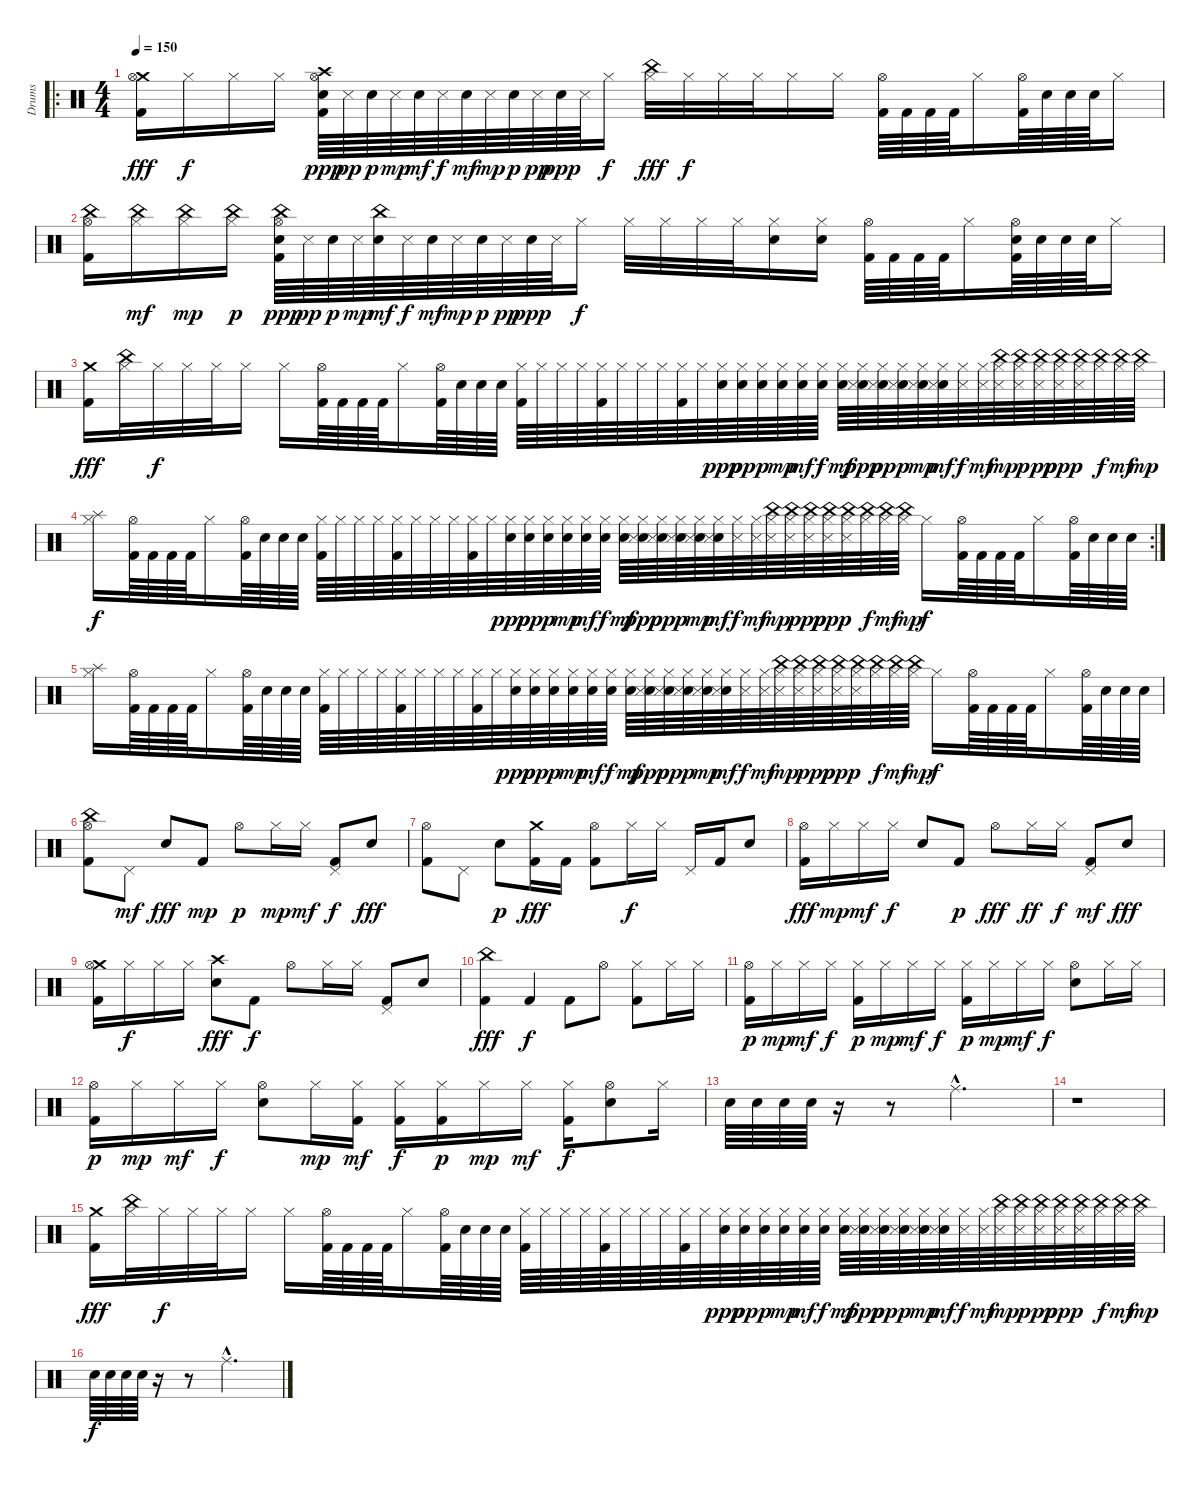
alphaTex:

\track ("Drums" "Drums") {instrument percussion}
\staff {score}
\articulation defaults
\ro
\ts (4 4)
\tempo 150
\clef neutral
\ks c
("Crash medium (hit)" "Hi-Hat (open)" "Kick (hit) 2").16{dy fff} "Hi-Hat (closed)".16{dy f} "Hi-Hat (closed)".16 "Hi-Hat (closed)".16 ("Crash high (hit)" "Hi-Hat (open)" "Electric Snare (hit)" "Kick (hit) 2").64{dy ppp} "Snare (side stick) 3".64{dy pp} "Electric Snare (hit)".64{dy p} "Snare (side stick) 3".64{dy mp} "Electric Snare (hit)".64{dy mf} "Snare (side stick) 3".64{dy f} "Electric Snare (hit)".64{dy mf} "Snare (side stick) 3".64{dy mp} "Electric Snare (hit)".64{dy p} "Snare (side stick) 3".64{dy pp} "Electric Snare (hit)".64{dy ppp} "Snare (side stick) 3".64 "Hi-Hat (closed)".16{dy f} ("China (hit)" "Hi-Hat (closed)").32{dy fff} "Hi-Hat (closed)".32{dy f} "Hi-Hat (closed)".32 "Hi-Hat (closed)".32 "Hi-Hat (closed)".16 "Hi-Hat (closed)".16 ("Hi-Hat (open)" "Kick (hit) 2").64 "Kick (hit) 2".64 "Kick (hit) 2".64 "Kick (hit) 2".64 "Hi-Hat (closed)".16 ("Hi-Hat (open)" "Kick (hit) 2").64 "Electric Snare (hit)".64 "Electric Snare (hit)".64 "Electric Snare (hit)".64 "Hi-Hat (closed)".16 |
("China (hit)" "Hi-Hat (open)" "Kick (hit) 2").16 ("China (hit)" "Hi-Hat (closed)").16{dy mf} ("China (hit)" "Hi-Hat (closed)").16{dy mp} ("China (hit)" "Hi-Hat (closed)").16{dy p} ("China (hit)" "Hi-Hat (open)" "Electric Snare (hit)" "Kick (hit) 2").64{dy ppp} "Snare (side stick) 3".64{dy pp} "Electric Snare (hit)".64{dy p} "Snare (side stick) 3".64{dy mp} ("China (hit)" "Electric Snare (hit)").64{dy mf} "Snare (side stick) 3".64{dy f} "Electric Snare (hit)".64{dy mf} "Snare (side stick) 3".64{dy mp} "Electric Snare (hit)".64{dy p} "Snare (side stick) 3".64{dy pp} "Electric Snare (hit)".64{dy ppp} "Snare (side stick) 3".64 "Hi-Hat (closed)".16{dy f} "Hi-Hat (closed)".32 "Hi-Hat (closed)".32 "Hi-Hat (closed)".32 "Hi-Hat (closed)".32 ("Hand Clap (hit)" "Hi-Hat (closed)").16 ("Hand Clap (hit)" "Hi-Hat (closed)").16 ("Hi-Hat (open)" "Kick (hit) 2").64 "Kick (hit) 2".64 "Kick (hit) 2".64 "Kick (hit) 2".64 "Hi-Hat (closed)".16 ("Hand Clap (hit)" "Hi-Hat (open)" "Kick (hit) 2").64 "Electric Snare (hit)".64 "Electric Snare (hit)".64 "Electric Snare (hit)".64 "Hi-Hat (closed)".16 |
("Crash medium (hit)" "Kick (hit) 2").16{dy fff} ("China (hit)" "Hi-Hat (closed)").32 "Hi-Hat (closed)".32{dy f} "Hi-Hat (closed)".32 "Hi-Hat (closed)".32 "Hi-Hat (closed)".16 "Hi-Hat (closed)".16 ("Hi-Hat (open)" "Kick (hit) 2").64 "Kick (hit) 2".64 "Kick (hit) 2".64 "Kick (hit) 2".64 "Hi-Hat (closed)".16 ("Hi-Hat (open)" "Kick (hit) 2").64 "Electric Snare (hit)".64 "Electric Snare (hit)".64 "Electric Snare (hit)".64 ("Hi-Hat (closed)" "Kick (hit) 2").64 "Hi-Hat (closed)".64 "Hi-Hat (closed)".64 "Hi-Hat (closed)".64 ("Hi-Hat (closed)" "Kick (hit) 2").64 "Hi-Hat (closed)".64 "Hi-Hat (closed)".64 "Hi-Hat (closed)".64 ("Hi-Hat (closed)" "Kick (hit) 2").64 "Hi-Hat (closed)".64 ("Hi-Hat (closed)" "Electric Snare (hit)").64{dy ppp} ("Hi-Hat (closed)" "Electric Snare (hit)").64{dy pp} ("Hi-Hat (closed)" "Electric Snare (hit)").64{dy p} ("Hi-Hat (closed)" "Electric Snare (hit)").64{dy mp} ("Hi-Hat (closed)" "Electric Snare (hit)").64{dy mf} ("Hi-Hat (closed)" "Electric Snare (hit)").64{dy f} ("Hi-Hat (closed)" "Electric Snare (hit)").64{dy mf} ("Hi-Hat (closed)" "Electric Snare (hit)" "Snare (side stick) 3").64{dy ppp} ("Hi-Hat (closed)" "Electric Snare (hit)" "Snare (side stick) 3").64{dy pp} ("Hi-Hat (closed)" "Electric Snare (hit)" "Snare (side stick) 3").64{dy p} ("Hi-Hat (closed)" "Electric Snare (hit)" "Snare (side stick) 3").64{dy mp} ("Hi-Hat (closed)" "Electric Snare (hit)" "Snare (side stick) 3").64{dy mf} ("Hi-Hat (closed)" "Snare (side stick) 3").64{dy f} ("Hi-Hat (closed)" "Snare (side stick) 3").64{dy mf} ("China (hit)" "Hi-Hat (closed)" "Snare (side stick) 3").64{dy mp} ("China (hit)" "Hi-Hat (closed)" "Snare (side stick) 3").64{dy p} ("China (hit)" "Hi-Hat (closed)" "Snare (side stick) 3").64{dy pp} ("China (hit)" "Hi-Hat (closed)" "Snare (side stick) 3").64{dy ppp} ("China (hit)" "Hi-Hat (closed)" "Snare (side stick) 3").64 ("China (hit)" "Hi-Hat (closed)").64{dy f} ("China (hit)" "Hi-Hat (closed)").64{dy mf} ("China (hit)" "Hi-Hat (closed)").64{dy mp} |
\rc 2
("Splash (hit)" "Hi-Hat (closed)").16{dy f} ("Hi-Hat (open)" "Kick (hit) 2").64 "Kick (hit) 2".64 "Kick (hit) 2".64 "Kick (hit) 2".64 "Hi-Hat (closed)".16 ("Hi-Hat (open)" "Kick (hit) 2").64 "Electric Snare (hit)".64 "Electric Snare (hit)".64 "Electric Snare (hit)".64 ("Hi-Hat (closed)" "Kick (hit) 2").64 "Hi-Hat (closed)".64 "Hi-Hat (closed)".64 "Hi-Hat (closed)".64 ("Hi-Hat (closed)" "Kick (hit) 2").64 "Hi-Hat (closed)".64 "Hi-Hat (closed)".64 "Hi-Hat (closed)".64 ("Hi-Hat (closed)" "Kick (hit) 2").64 "Hi-Hat (closed)".64 ("Hi-Hat (closed)" "Electric Snare (hit)").64{dy ppp} ("Hi-Hat (closed)" "Electric Snare (hit)").64{dy pp} ("Hi-Hat (closed)" "Electric Snare (hit)").64{dy p} ("Hi-Hat (closed)" "Electric Snare (hit)").64{dy mp} ("Hi-Hat (closed)" "Electric Snare (hit)").64{dy mf} ("Hi-Hat (closed)" "Electric Snare (hit)").64{dy f} ("Hi-Hat (closed)" "Electric Snare (hit)").64{dy mf} ("Hi-Hat (closed)" "Electric Snare (hit)" "Snare (side stick) 3").64{dy ppp} ("Hi-Hat (closed)" "Electric Snare (hit)" "Snare (side stick) 3").64{dy pp} ("Hi-Hat (closed)" "Electric Snare (hit)" "Snare (side stick) 3").64{dy p} ("Hi-Hat (closed)" "Electric Snare (hit)" "Snare (side stick) 3").64{dy mp} ("Hi-Hat (closed)" "Electric Snare (hit)" "Snare (side stick) 3").64{dy mf} ("Hi-Hat (closed)" "Snare (side stick) 3").64{dy f} ("Hi-Hat (closed)" "Snare (side stick) 3").64{dy mf} ("China (hit)" "Hi-Hat (closed)" "Snare (side stick) 3").64{dy mp} ("China (hit)" "Hi-Hat (closed)" "Snare (side stick) 3").64{dy p} ("China (hit)" "Hi-Hat (closed)" "Snare (side stick) 3").64{dy pp} ("China (hit)" "Hi-Hat (closed)" "Snare (side stick) 3").64{dy ppp} ("China (hit)" "Hi-Hat (closed)" "Snare (side stick) 3").64 ("China (hit)" "Hi-Hat (closed)").64{dy f} ("China (hit)" "Hi-Hat (closed)").64{dy mf} ("China (hit)" "Hi-Hat (closed)").64{dy mp} "Hi-Hat (closed)".16{dy f} ("Hi-Hat (open)" "Kick (hit) 2").64 "Kick (hit) 2".64 "Kick (hit) 2".64 "Kick (hit) 2".64 "Hi-Hat (closed)".16 ("Hi-Hat (open)" "Kick (hit) 2").64 "Electric Snare (hit)".64 "Electric Snare (hit)".64 "Electric Snare (hit)".64 |
("Splash (hit)" "Hi-Hat (closed)").16 ("Hi-Hat (open)" "Kick (hit) 2").64 "Kick (hit) 2".64 "Kick (hit) 2".64 "Kick (hit) 2".64 "Hi-Hat (closed)".16 ("Hi-Hat (open)" "Kick (hit) 2").64 "Electric Snare (hit)".64 "Electric Snare (hit)".64 "Electric Snare (hit)".64 ("Hi-Hat (closed)" "Kick (hit) 2").64 "Hi-Hat (closed)".64 "Hi-Hat (closed)".64 "Hi-Hat (closed)".64 ("Hi-Hat (closed)" "Kick (hit) 2").64 "Hi-Hat (closed)".64 "Hi-Hat (closed)".64 "Hi-Hat (closed)".64 ("Hi-Hat (closed)" "Kick (hit) 2").64 "Hi-Hat (closed)".64 ("Hi-Hat (closed)" "Electric Snare (hit)").64{dy ppp} ("Hi-Hat (closed)" "Electric Snare (hit)").64{dy pp} ("Hi-Hat (closed)" "Electric Snare (hit)").64{dy p} ("Hi-Hat (closed)" "Electric Snare (hit)").64{dy mp} ("Hi-Hat (closed)" "Electric Snare (hit)").64{dy mf} ("Hi-Hat (closed)" "Electric Snare (hit)").64{dy f} ("Hi-Hat (closed)" "Electric Snare (hit)").64{dy mf} ("Hi-Hat (closed)" "Electric Snare (hit)" "Snare (side stick) 3").64{dy ppp} ("Hi-Hat (closed)" "Electric Snare (hit)" "Snare (side stick) 3").64{dy pp} ("Hi-Hat (closed)" "Electric Snare (hit)" "Snare (side stick) 3").64{dy p} ("Hi-Hat (closed)" "Electric Snare (hit)" "Snare (side stick) 3").64{dy mp} ("Hi-Hat (closed)" "Electric Snare (hit)" "Snare (side stick) 3").64{dy mf} ("Hi-Hat (closed)" "Snare (side stick) 3").64{dy f} ("Hi-Hat (closed)" "Snare (side stick) 3").64{dy mf} ("China (hit)" "Hi-Hat (closed)" "Snare (side stick) 3").64{dy mp} ("China (hit)" "Hi-Hat (closed)" "Snare (side stick) 3").64{dy p} ("China (hit)" "Hi-Hat (closed)" "Snare (side stick) 3").64{dy pp} ("China (hit)" "Hi-Hat (closed)" "Snare (side stick) 3").64{dy ppp} ("China (hit)" "Hi-Hat (closed)" "Snare (side stick) 3").64 ("China (hit)" "Hi-Hat (closed)").64{dy f} ("China (hit)" "Hi-Hat (closed)").64{dy mf} ("China (hit)" "Hi-Hat (closed)").64{dy mp} "Hi-Hat (closed)".16{dy f} ("Hi-Hat (open)" "Kick (hit) 2").64 "Kick (hit) 2".64 "Kick (hit) 2".64 "Kick (hit) 2".64 "Hi-Hat (closed)".16 ("Hi-Hat (open)" "Kick (hit) 2").64 "Electric Snare (hit)".64 "Electric Snare (hit)".64 "Electric Snare (hit)".64 |
("China (hit)" "Hi-Hat (open)" "Kick (hit) 2").8 "Pedal Hi-Hat (hit)".8{dy mf} "Electric Snare (hit)".8{dy fff} "Kick (hit) 2".8{dy mp} "Hi-Hat (open)".8{dy p} "Hi-Hat (closed)".16{dy mp} "Hi-Hat (closed)".16{dy mf} ("Pedal Hi-Hat (hit)" "Kick (hit) 2").8{dy f} "Electric Snare (hit)".8{dy fff} |
("Hi-Hat (open)" "Kick (hit) 2").8 "Pedal Hi-Hat (hit)".8 "Electric Snare (hit)".8{dy p} ("Crash medium (hit)" "Kick (hit) 2").16{dy fff} "Kick (hit) 2".16 ("Hi-Hat (open)" "Kick (hit) 2").8 "Hi-Hat (closed)".16{dy f} "Hi-Hat (closed)".16 "Pedal Hi-Hat (hit)".16 "Kick (hit) 2".16 "Electric Snare (hit)".8 |
("Hi-Hat (open)" "Kick (hit) 2").16{dy fff} "Hi-Hat (closed)".16{dy mp} "Hi-Hat (closed)".16{dy mf} "Hi-Hat (closed)".16{dy f} "Electric Snare (hit)".8 "Kick (hit) 2".8{dy p} "Hi-Hat (open)".8{dy fff} "Hi-Hat (closed)".16{dy ff} "Hi-Hat (closed)".16{dy f} ("Pedal Hi-Hat (hit)" "Kick (hit) 2").8{dy mf} "Electric Snare (hit)".8{dy fff} |
("Crash medium (hit)" "Hi-Hat (open)" "Kick (hit) 2").16 "Hi-Hat (closed)".16{dy f} "Hi-Hat (closed)".16 "Hi-Hat (closed)".16 ("Crash high (hit)" "Electric Snare (hit)").8{dy fff} "Kick (hit) 2".8{dy f} "Hi-Hat (open)".8 "Hi-Hat (closed)".16 "Hi-Hat (closed)".16 ("Pedal Hi-Hat (hit)" "Kick (hit) 2").8 "Electric Snare (hit)".8 |
("China (hit)" "Kick (hit) 2").4{dy fff} "Kick (hit) 2".4{dy f} "Kick (hit) 2".8 "Hi-Hat (open)".8 ("Hi-Hat (closed)" "Kick (hit) 2").8 "Hi-Hat (closed)".16 "Hi-Hat (closed)".16 |
("Hi-Hat (open)" "Kick (hit) 2").16{dy p} "Hi-Hat (closed)".16{dy mp} "Hi-Hat (closed)".16{dy mf} "Hi-Hat (closed)".16{dy f} ("Hi-Hat (closed)" "Kick (hit) 2").16{dy p} "Hi-Hat (closed)".16{dy mp} "Hi-Hat (closed)".16{dy mf} "Hi-Hat (closed)".16{dy f} ("Hi-Hat (closed)" "Kick (hit) 2").16{dy p} "Hi-Hat (closed)".16{dy mp} "Hi-Hat (closed)".16{dy mf} "Hi-Hat (closed)".16{dy f} ("Hi-Hat (open)" "Electric Snare (hit)").8 "Hi-Hat (closed)".16 "Hi-Hat (closed)".16 |
("Hi-Hat (open)" "Kick (hit) 2").16{dy p} "Hi-Hat (closed)".16{dy mp} "Hi-Hat (closed)".16{dy mf} "Hi-Hat (closed)".16{dy f} ("Hi-Hat (open)" "Electric Snare (hit)").8 "Hi-Hat (closed)".16{dy mp} ("Hi-Hat (closed)" "Kick (hit) 2").16{dy mf} ("Hi-Hat (closed)" "Kick (hit) 2").16{dy f} ("Hi-Hat (closed)" "Kick (hit) 2").16{dy p} "Hi-Hat (closed)".16{dy mp} "Hi-Hat (closed)".16{dy mf} ("Hi-Hat (closed)" "Kick (hit) 2").16{dy f} ("Hi-Hat (open)" "Electric Snare (hit)").8 "Hi-Hat (closed)".16 |
"Electric Snare (hit)".64 "Electric Snare (hit)".64 "Electric Snare (hit)".64 "Electric Snare (hit)".64 r.16 r.8 "Ride (middle)"{hac}.2{d} |
r.1 |
("Crash medium (hit)" "Kick (hit) 2").16{dy fff} ("China (hit)" "Hi-Hat (closed)").32 "Hi-Hat (closed)".32{dy f} "Hi-Hat (closed)".32 "Hi-Hat (closed)".32 "Hi-Hat (closed)".16 "Hi-Hat (closed)".16 ("Hi-Hat (open)" "Kick (hit) 2").64 "Kick (hit) 2".64 "Kick (hit) 2".64 "Kick (hit) 2".64 "Hi-Hat (closed)".16 ("Hi-Hat (open)" "Kick (hit) 2").64 "Electric Snare (hit)".64 "Electric Snare (hit)".64 "Electric Snare (hit)".64 ("Hi-Hat (closed)" "Kick (hit) 2").64 "Hi-Hat (closed)".64 "Hi-Hat (closed)".64 "Hi-Hat (closed)".64 ("Hi-Hat (closed)" "Kick (hit) 2").64 "Hi-Hat (closed)".64 "Hi-Hat (closed)".64 "Hi-Hat (closed)".64 ("Hi-Hat (closed)" "Kick (hit) 2").64 "Hi-Hat (closed)".64 ("Hi-Hat (closed)" "Electric Snare (hit)").64{dy ppp} ("Hi-Hat (closed)" "Electric Snare (hit)").64{dy pp} ("Hi-Hat (closed)" "Electric Snare (hit)").64{dy p} ("Hi-Hat (closed)" "Electric Snare (hit)").64{dy mp} ("Hi-Hat (closed)" "Electric Snare (hit)").64{dy mf} ("Hi-Hat (closed)" "Electric Snare (hit)").64{dy f} ("Hi-Hat (closed)" "Electric Snare (hit)").64{dy mf} ("Hi-Hat (closed)" "Electric Snare (hit)" "Snare (side stick) 3").64{dy ppp} ("Hi-Hat (closed)" "Electric Snare (hit)" "Snare (side stick) 3").64{dy pp} ("Hi-Hat (closed)" "Electric Snare (hit)" "Snare (side stick) 3").64{dy p} ("Hi-Hat (closed)" "Electric Snare (hit)" "Snare (side stick) 3").64{dy mp} ("Hi-Hat (closed)" "Electric Snare (hit)" "Snare (side stick) 3").64{dy mf} ("Hi-Hat (closed)" "Snare (side stick) 3").64{dy f} ("Hi-Hat (closed)" "Snare (side stick) 3").64{dy mf} ("China (hit)" "Hi-Hat (closed)" "Snare (side stick) 3").64{dy mp} ("China (hit)" "Hi-Hat (closed)" "Snare (side stick) 3").64{dy p} ("China (hit)" "Hi-Hat (closed)" "Snare (side stick) 3").64{dy pp} ("China (hit)" "Hi-Hat (closed)" "Snare (side stick) 3").64{dy ppp} ("China (hit)" "Hi-Hat (closed)" "Snare (side stick) 3").64 ("China (hit)" "Hi-Hat (closed)").64{dy f} ("China (hit)" "Hi-Hat (closed)").64{dy mf} ("China (hit)" "Hi-Hat (closed)").64{dy mp} |
"Electric Snare (hit)".64{dy f} "Electric Snare (hit)".64 "Electric Snare (hit)".64 "Electric Snare (hit)".64 r.16 r.8 "Ride (middle)"{hac}.2{d}
